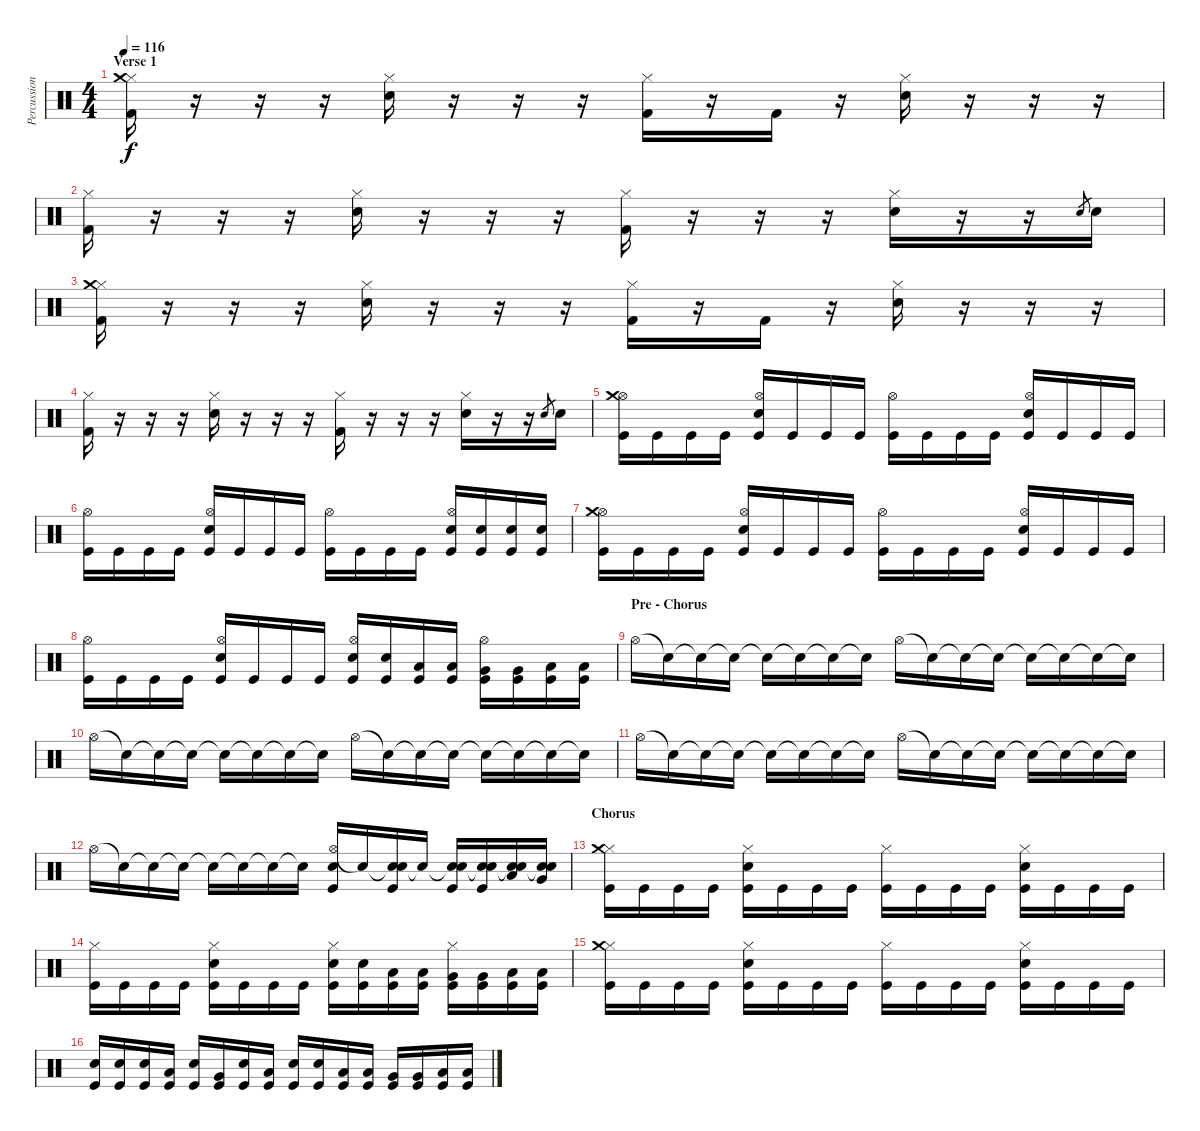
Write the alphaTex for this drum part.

\track ("Percussion" "Percussion") {instrument percussion}
\staff {score}
\articulation defaults
\ts (4 4)
\section ("" "Verse 1")
\tempo 116
\clef neutral
\ks c
("Hi-Hat (closed)" "Crash medium (hit)" "Kick (hit) 2").16{dy f} r.16 r.16 r.16 ("Hi-Hat (closed)" "Snare (hit) 2").16 r.16 r.16 r.16 ("Hi-Hat (closed)" "Kick (hit) 2").16 r.16 "Kick (hit) 2".16 r.16 ("Hi-Hat (closed)" "Snare (hit) 2").16 r.16 r.16 r.16 |
("Hi-Hat (closed)" "Kick (hit) 2").16 r.16 r.16 r.16 ("Hi-Hat (closed)" "Snare (hit) 2").16 r.16 r.16 r.16 ("Hi-Hat (closed)" "Kick (hit) 2").16 r.16 r.16 r.16 ("Hi-Hat (closed)" "Snare (hit) 2").16 r.16 r.16 "Snare (hit) 2".8{gr} "Snare (hit) 2".16 |
("Hi-Hat (closed)" "Crash medium (hit)" "Kick (hit) 2").16 r.16 r.16 r.16 ("Hi-Hat (closed)" "Snare (hit) 2").16 r.16 r.16 r.16 ("Hi-Hat (closed)" "Kick (hit) 2").16 r.16 "Kick (hit) 2".16 r.16 ("Hi-Hat (closed)" "Snare (hit) 2").16 r.16 r.16 r.16 |
("Hi-Hat (closed)" "Kick (hit) 2").16 r.16 r.16 r.16 ("Hi-Hat (closed)" "Snare (hit) 2").16 r.16 r.16 r.16 ("Hi-Hat (closed)" "Kick (hit) 2").16 r.16 r.16 r.16 ("Hi-Hat (closed)" "Snare (hit) 2").16 r.16 r.16 "Snare (hit) 2".8{gr} "Snare (hit) 2".16 |
("Hi-Hat (open)" "Crash medium (hit)" "Kick (hit)").16 "Kick (hit)".16 "Kick (hit)".16 "Kick (hit)".16 ("Hi-Hat (open)" "Snare (hit) 2" "Kick (hit)").16 "Kick (hit)".16 "Kick (hit)".16 "Kick (hit)".16 ("Hi-Hat (open)" "Kick (hit)").16 "Kick (hit)".16 "Kick (hit)".16 "Kick (hit)".16 ("Hi-Hat (open)" "Snare (hit) 2" "Kick (hit)").16 "Kick (hit)".16 "Kick (hit)".16 "Kick (hit)".16 |
("Hi-Hat (open)" "Kick (hit)").16 "Kick (hit)".16 "Kick (hit)".16 "Kick (hit)".16 ("Hi-Hat (open)" "Snare (hit) 2" "Kick (hit)").16 "Kick (hit)".16 "Kick (hit)".16 "Kick (hit)".16 ("Hi-Hat (open)" "Kick (hit)").16 "Kick (hit)".16 "Kick (hit)".16 "Kick (hit)".16 ("Hi-Hat (open)" "Snare (hit) 2" "Kick (hit)").16 ("Snare (hit) 2" "Kick (hit)").16 ("Snare (hit) 2" "Kick (hit)").16 ("Snare (hit) 2" "Kick (hit)").16 |
("Hi-Hat (open)" "Crash medium (hit)" "Kick (hit)").16 "Kick (hit)".16 "Kick (hit)".16 "Kick (hit)".16 ("Hi-Hat (open)" "Snare (hit) 2" "Kick (hit)").16 "Kick (hit)".16 "Kick (hit)".16 "Kick (hit)".16 ("Hi-Hat (open)" "Kick (hit)").16 "Kick (hit)".16 "Kick (hit)".16 "Kick (hit)".16 ("Hi-Hat (open)" "Snare (hit) 2" "Kick (hit)").16 "Kick (hit)".16 "Kick (hit)".16 "Kick (hit)".16 |
("Hi-Hat (open)" "Kick (hit)").16 "Kick (hit)".16 "Kick (hit)".16 "Kick (hit)".16 ("Hi-Hat (open)" "Snare (hit) 2" "Kick (hit)").16 "Kick (hit)".16 "Kick (hit)".16 "Kick (hit)".16 ("Hi-Hat (open)" "Snare (hit) 2" "Kick (hit)").16 ("Snare (hit) 2" "Kick (hit)").16 ("Low Tom (hit)" "Kick (hit)").16 ("Low Tom (hit)" "Kick (hit)").16 ("Hi-Hat (open)" "Very Low Tom (hit)" "Kick (hit)").16 ("Very Low Tom (hit)" "Kick (hit)").16 ("Low Floor Tom (hit)" "Kick (hit)").16 ("Low Floor Tom (hit)" "Kick (hit)").16 |
\section ("" "Pre - Chorus")
"Hi-Hat (open)".16 "Snare (hit)"{t}.16 "Snare (hit)"{t}.16 "Snare (hit)"{t}.16 "Snare (hit)"{t}.16 "Snare (hit)"{t}.16 "Snare (hit)"{t}.16 "Snare (hit)"{t}.16 "Hi-Hat (open)".16 "Snare (hit)"{t}.16 "Snare (hit)"{t}.16 "Snare (hit)"{t}.16 "Snare (hit)"{t}.16 "Snare (hit)"{t}.16 "Snare (hit)"{t}.16 "Snare (hit)"{t}.16 |
"Hi-Hat (open)".16 "Snare (hit)"{t}.16 "Snare (hit)"{t}.16 "Snare (hit)"{t}.16 "Snare (hit)"{t}.16 "Snare (hit)"{t}.16 "Snare (hit)"{t}.16 "Snare (hit)"{t}.16 "Hi-Hat (open)".16 "Snare (hit)"{t}.16 "Snare (hit)"{t}.16 "Snare (hit)"{t}.16 "Snare (hit)"{t}.16 "Snare (hit)"{t}.16 "Snare (hit)"{t}.16 "Snare (hit)"{t}.16 |
"Hi-Hat (open)".16 "Snare (hit)"{t}.16 "Snare (hit)"{t}.16 "Snare (hit)"{t}.16 "Snare (hit)"{t}.16 "Snare (hit)"{t}.16 "Snare (hit)"{t}.16 "Snare (hit)"{t}.16 "Hi-Hat (open)".16 "Snare (hit)"{t}.16 "Snare (hit)"{t}.16 "Snare (hit)"{t}.16 "Snare (hit)"{t}.16 "Snare (hit)"{t}.16 "Snare (hit)"{t}.16 "Snare (hit)"{t}.16 |
"Hi-Hat (open)".16 "Snare (hit)"{t}.16 "Snare (hit)"{t}.16 "Snare (hit)"{t}.16 "Snare (hit)"{t}.16 "Snare (hit)"{t}.16 "Snare (hit)"{t}.16 "Snare (hit)"{t}.16 ("Hi-Hat (open)" "Snare (hit) 2" "Kick (hit)").16 "Snare (hit)"{t}.16 ("Snare (hit)"{t} "Snare (hit) 2" "Kick (hit)").16 "Snare (hit)"{t}.16 ("Snare (hit)"{t} "Snare (hit) 2" "Kick (hit)").16 ("Snare (hit)"{t} "Snare (hit) 2" "Kick (hit)").16 ("Snare (hit)"{t} "Snare (hit) 2" "Low Tom (hit)").16 ("Snare (hit)"{t} "Snare (hit) 2" "Very Low Tom (hit)").16 |
\section ("" "Chorus")
("Hi-Hat (closed)" "Crash medium (hit)" "Kick (hit)").16 "Kick (hit)".16 "Kick (hit)".16 "Kick (hit)".16 ("Hi-Hat (closed)" "Snare (hit) 2" "Kick (hit)").16 "Kick (hit)".16 "Kick (hit)".16 "Kick (hit)".16 ("Hi-Hat (closed)" "Kick (hit)").16 "Kick (hit)".16 "Kick (hit)".16 "Kick (hit)".16 ("Hi-Hat (closed)" "Snare (hit) 2" "Kick (hit)").16 "Kick (hit)".16 "Kick (hit)".16 "Kick (hit)".16 |
("Hi-Hat (closed)" "Kick (hit)").16 "Kick (hit)".16 "Kick (hit)".16 "Kick (hit)".16 ("Hi-Hat (closed)" "Snare (hit) 2" "Kick (hit)").16 "Kick (hit)".16 "Kick (hit)".16 "Kick (hit)".16 ("Hi-Hat (closed)" "Snare (hit) 2" "Kick (hit)").16 ("Snare (hit) 2" "Kick (hit)").16 ("Low Tom (hit)" "Kick (hit)").16 ("Low Tom (hit)" "Kick (hit)").16 ("Hi-Hat (closed)" "Very Low Tom (hit)" "Kick (hit)").16 ("Very Low Tom (hit)" "Kick (hit)").16 ("Low Floor Tom (hit)" "Kick (hit)").16 ("Low Floor Tom (hit)" "Kick (hit)").16 |
("Hi-Hat (closed)" "Crash medium (hit)" "Kick (hit)").16 "Kick (hit)".16 "Kick (hit)".16 "Kick (hit)".16 ("Hi-Hat (closed)" "Snare (hit) 2" "Kick (hit)").16 "Kick (hit)".16 "Kick (hit)".16 "Kick (hit)".16 ("Hi-Hat (closed)" "Kick (hit)").16 "Kick (hit)".16 "Kick (hit)".16 "Kick (hit)".16 ("Hi-Hat (closed)" "Snare (hit) 2" "Kick (hit)").16 "Kick (hit)".16 "Kick (hit)".16 "Kick (hit)".16 |
("Snare (hit) 2" "Kick (hit)").16 ("Snare (hit) 2" "Kick (hit)").16 ("Snare (hit) 2" "Kick (hit)").16 ("Low Tom (hit)" "Kick (hit)").16 ("Snare (hit) 2" "Kick (hit)").16 ("Very Low Tom (hit)" "Kick (hit)").16 ("Snare (hit) 2" "Kick (hit)").16 ("Low Floor Tom (hit)" "Kick (hit)").16 ("Snare (hit) 2" "Kick (hit)").16 ("Snare (hit) 2" "Kick (hit)").16 ("Low Tom (hit)" "Kick (hit)").16 ("Low Tom (hit)" "Kick (hit)").16 ("Very Low Tom (hit)" "Kick (hit)").16 ("Very Low Tom (hit)" "Kick (hit)").16 ("Low Floor Tom (hit)" "Kick (hit)").16 ("Low Floor Tom (hit)" "Kick (hit)").16
